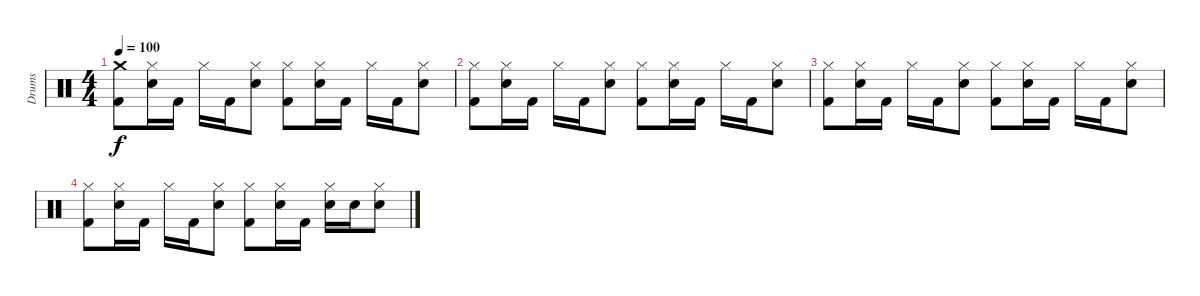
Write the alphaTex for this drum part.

\track ("Drums" "Drums") {instrument percussion}
\staff {score}
\articulation defaults
\ts (4 4)
\tempo 100
\clef neutral
\ks c
("Crash medium (hit)" "Kick (hit) 2").8{dy f} ("Hi-Hat (closed)" "Snare (hit) 2").16 "Kick (hit) 2".16 "Hi-Hat (closed)".16 "Kick (hit) 2".16 ("Hi-Hat (closed)" "Snare (hit) 2").8 ("Hi-Hat (closed)" "Kick (hit) 2").8 ("Hi-Hat (closed)" "Snare (hit) 2").16 "Kick (hit) 2".16 "Hi-Hat (closed)".16 "Kick (hit) 2".16 ("Hi-Hat (closed)" "Snare (hit) 2").8 |
("Hi-Hat (closed)" "Kick (hit) 2").8 ("Hi-Hat (closed)" "Snare (hit) 2").16 "Kick (hit) 2".16 "Hi-Hat (closed)".16 "Kick (hit) 2".16 ("Hi-Hat (closed)" "Snare (hit) 2").8 ("Hi-Hat (closed)" "Kick (hit) 2").8 ("Hi-Hat (closed)" "Snare (hit) 2").16 "Kick (hit) 2".16 "Hi-Hat (closed)".16 "Kick (hit) 2".16 ("Hi-Hat (closed)" "Snare (hit) 2").8 |
("Hi-Hat (closed)" "Kick (hit) 2").8 ("Hi-Hat (closed)" "Snare (hit) 2").16 "Kick (hit) 2".16 "Hi-Hat (closed)".16 "Kick (hit) 2".16 ("Hi-Hat (closed)" "Snare (hit) 2").8 ("Hi-Hat (closed)" "Kick (hit) 2").8 ("Hi-Hat (closed)" "Snare (hit) 2").16 "Kick (hit) 2".16 "Hi-Hat (closed)".16 "Kick (hit) 2".16 ("Hi-Hat (closed)" "Snare (hit) 2").8 |
("Hi-Hat (closed)" "Kick (hit) 2").8 ("Hi-Hat (closed)" "Snare (hit) 2").16 "Kick (hit) 2".16 "Hi-Hat (closed)".16 "Kick (hit) 2".16 ("Hi-Hat (closed)" "Snare (hit) 2").8 ("Hi-Hat (closed)" "Kick (hit) 2").8 ("Hi-Hat (closed)" "Snare (hit) 2").16 "Kick (hit) 2".16 ("Snare (hit) 2" "Hi-Hat (closed)").16 "Snare (hit) 2".16 ("Snare (hit) 2" "Hi-Hat (closed)").8
